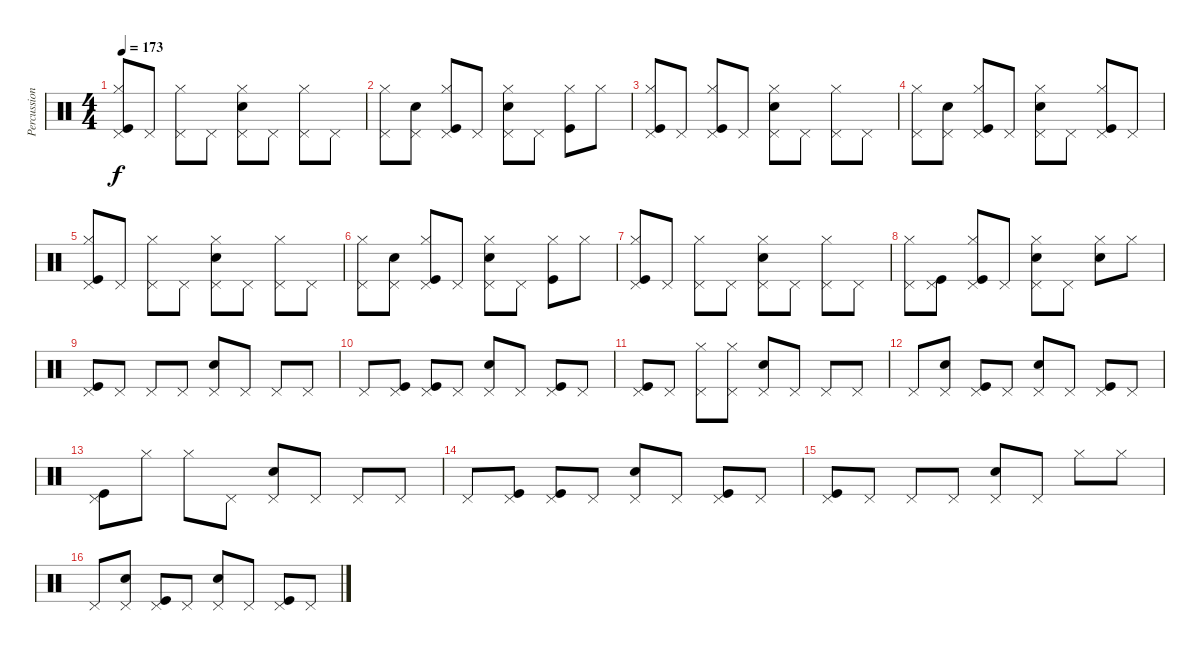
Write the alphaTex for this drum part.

\track ("Percussion" "Percussion") {instrument percussion}
\staff {score}
\articulation defaults
\ts (4 4)
\tempo 173
\clef neutral
\ks c
("Kick (hit)" "Hi-Hat (closed)" "Pedal Hi-Hat (hit)").8{dy f} "Pedal Hi-Hat (hit)".8 ("Hi-Hat (closed)" "Pedal Hi-Hat (hit)").8 "Pedal Hi-Hat (hit)".8 ("Snare (hit) 2" "Hi-Hat (closed)" "Pedal Hi-Hat (hit)").8 "Pedal Hi-Hat (hit)".8 ("Hi-Hat (closed)" "Pedal Hi-Hat (hit)").8 "Pedal Hi-Hat (hit)".8 |
("Hi-Hat (closed)" "Pedal Hi-Hat (hit)").8 ("Snare (hit) 2" "Pedal Hi-Hat (hit)").8 ("Kick (hit)" "Hi-Hat (closed)" "Pedal Hi-Hat (hit)").8 "Pedal Hi-Hat (hit)".8 ("Snare (hit) 2" "Hi-Hat (closed)" "Pedal Hi-Hat (hit)").8 "Pedal Hi-Hat (hit)".8 ("Kick (hit)" "Hi-Hat (closed)").8 "Hi-Hat (closed)".8 |
("Kick (hit)" "Hi-Hat (closed)" "Pedal Hi-Hat (hit)").8 "Pedal Hi-Hat (hit)".8 ("Kick (hit)" "Hi-Hat (closed)" "Pedal Hi-Hat (hit)").8 "Pedal Hi-Hat (hit)".8 ("Snare (hit) 2" "Hi-Hat (closed)" "Pedal Hi-Hat (hit)").8 "Pedal Hi-Hat (hit)".8 ("Hi-Hat (closed)" "Pedal Hi-Hat (hit)").8 "Pedal Hi-Hat (hit)".8 |
("Hi-Hat (closed)" "Pedal Hi-Hat (hit)").8 ("Snare (hit) 2" "Pedal Hi-Hat (hit)").8 ("Kick (hit)" "Hi-Hat (closed)" "Pedal Hi-Hat (hit)").8 "Pedal Hi-Hat (hit)".8 ("Snare (hit) 2" "Hi-Hat (closed)" "Pedal Hi-Hat (hit)").8 "Pedal Hi-Hat (hit)".8 ("Kick (hit)" "Hi-Hat (closed)" "Pedal Hi-Hat (hit)").8 "Pedal Hi-Hat (hit)".8 |
("Kick (hit)" "Hi-Hat (closed)" "Pedal Hi-Hat (hit)").8 "Pedal Hi-Hat (hit)".8 ("Hi-Hat (closed)" "Pedal Hi-Hat (hit)").8 "Pedal Hi-Hat (hit)".8 ("Snare (hit) 2" "Hi-Hat (closed)" "Pedal Hi-Hat (hit)").8 "Pedal Hi-Hat (hit)".8 ("Hi-Hat (closed)" "Pedal Hi-Hat (hit)").8 "Pedal Hi-Hat (hit)".8 |
("Hi-Hat (closed)" "Pedal Hi-Hat (hit)").8 ("Snare (hit) 2" "Pedal Hi-Hat (hit)").8 ("Kick (hit)" "Hi-Hat (closed)" "Pedal Hi-Hat (hit)").8 "Pedal Hi-Hat (hit)".8 ("Snare (hit) 2" "Hi-Hat (closed)" "Pedal Hi-Hat (hit)").8 "Pedal Hi-Hat (hit)".8 ("Kick (hit)" "Hi-Hat (closed)").8 "Hi-Hat (closed)".8 |
("Kick (hit)" "Hi-Hat (closed)" "Pedal Hi-Hat (hit)").8 "Pedal Hi-Hat (hit)".8 ("Hi-Hat (closed)" "Pedal Hi-Hat (hit)").8 "Pedal Hi-Hat (hit)".8 ("Snare (hit) 2" "Hi-Hat (closed)" "Pedal Hi-Hat (hit)").8 "Pedal Hi-Hat (hit)".8 ("Hi-Hat (closed)" "Pedal Hi-Hat (hit)").8 "Pedal Hi-Hat (hit)".8 |
("Hi-Hat (closed)" "Pedal Hi-Hat (hit)").8 ("Kick (hit)" "Pedal Hi-Hat (hit)").8 ("Kick (hit)" "Hi-Hat (closed)" "Pedal Hi-Hat (hit)").8 "Pedal Hi-Hat (hit)".8 ("Snare (hit) 2" "Hi-Hat (closed)" "Pedal Hi-Hat (hit)").8 "Pedal Hi-Hat (hit)".8 ("Snare (hit) 2" "Hi-Hat (closed)").8 "Hi-Hat (closed)".8 |
("Kick (hit)" "Pedal Hi-Hat (hit)").8 "Pedal Hi-Hat (hit)".8 "Pedal Hi-Hat (hit)".8 "Pedal Hi-Hat (hit)".8 ("Snare (hit) 2" "Pedal Hi-Hat (hit)").8 "Pedal Hi-Hat (hit)".8 "Pedal Hi-Hat (hit)".8 "Pedal Hi-Hat (hit)".8 |
"Pedal Hi-Hat (hit)".8 ("Kick (hit)" "Pedal Hi-Hat (hit)").8 ("Kick (hit)" "Pedal Hi-Hat (hit)").8 "Pedal Hi-Hat (hit)".8 ("Snare (hit) 2" "Pedal Hi-Hat (hit)").8 "Pedal Hi-Hat (hit)".8 ("Kick (hit)" "Pedal Hi-Hat (hit)").8 "Pedal Hi-Hat (hit)".8 |
("Kick (hit)" "Pedal Hi-Hat (hit)").8 "Pedal Hi-Hat (hit)".8 ("Hi-Hat (closed)" "Pedal Hi-Hat (hit)").8 ("Hi-Hat (closed)" "Pedal Hi-Hat (hit)").8 ("Snare (hit) 2" "Pedal Hi-Hat (hit)").8 "Pedal Hi-Hat (hit)".8 "Pedal Hi-Hat (hit)".8 "Pedal Hi-Hat (hit)".8 |
"Pedal Hi-Hat (hit)".8 ("Snare (hit) 2" "Pedal Hi-Hat (hit)").8 ("Kick (hit)" "Pedal Hi-Hat (hit)").8 "Pedal Hi-Hat (hit)".8 ("Snare (hit) 2" "Pedal Hi-Hat (hit)").8 "Pedal Hi-Hat (hit)".8 ("Kick (hit)" "Pedal Hi-Hat (hit)").8 "Pedal Hi-Hat (hit)".8 |
("Kick (hit)" "Pedal Hi-Hat (hit)").8 "Hi-Hat (closed)".8 "Hi-Hat (closed)".8 "Pedal Hi-Hat (hit)".8 ("Snare (hit) 2" "Pedal Hi-Hat (hit)").8 "Pedal Hi-Hat (hit)".8 "Pedal Hi-Hat (hit)".8 "Pedal Hi-Hat (hit)".8 |
"Pedal Hi-Hat (hit)".8 ("Kick (hit)" "Pedal Hi-Hat (hit)").8 ("Kick (hit)" "Pedal Hi-Hat (hit)").8 "Pedal Hi-Hat (hit)".8 ("Snare (hit) 2" "Pedal Hi-Hat (hit)").8 "Pedal Hi-Hat (hit)".8 ("Kick (hit)" "Pedal Hi-Hat (hit)").8 "Pedal Hi-Hat (hit)".8 |
("Kick (hit)" "Pedal Hi-Hat (hit)").8 "Pedal Hi-Hat (hit)".8 "Pedal Hi-Hat (hit)".8 "Pedal Hi-Hat (hit)".8 ("Snare (hit) 2" "Pedal Hi-Hat (hit)").8 "Pedal Hi-Hat (hit)".8 "Hi-Hat (closed)".8 "Hi-Hat (closed)".8 |
"Pedal Hi-Hat (hit)".8 ("Snare (hit) 2" "Pedal Hi-Hat (hit)").8 ("Kick (hit)" "Pedal Hi-Hat (hit)").8 "Pedal Hi-Hat (hit)".8 ("Snare (hit) 2" "Pedal Hi-Hat (hit)").8 "Pedal Hi-Hat (hit)".8 ("Kick (hit)" "Pedal Hi-Hat (hit)").8 "Pedal Hi-Hat (hit)".8
